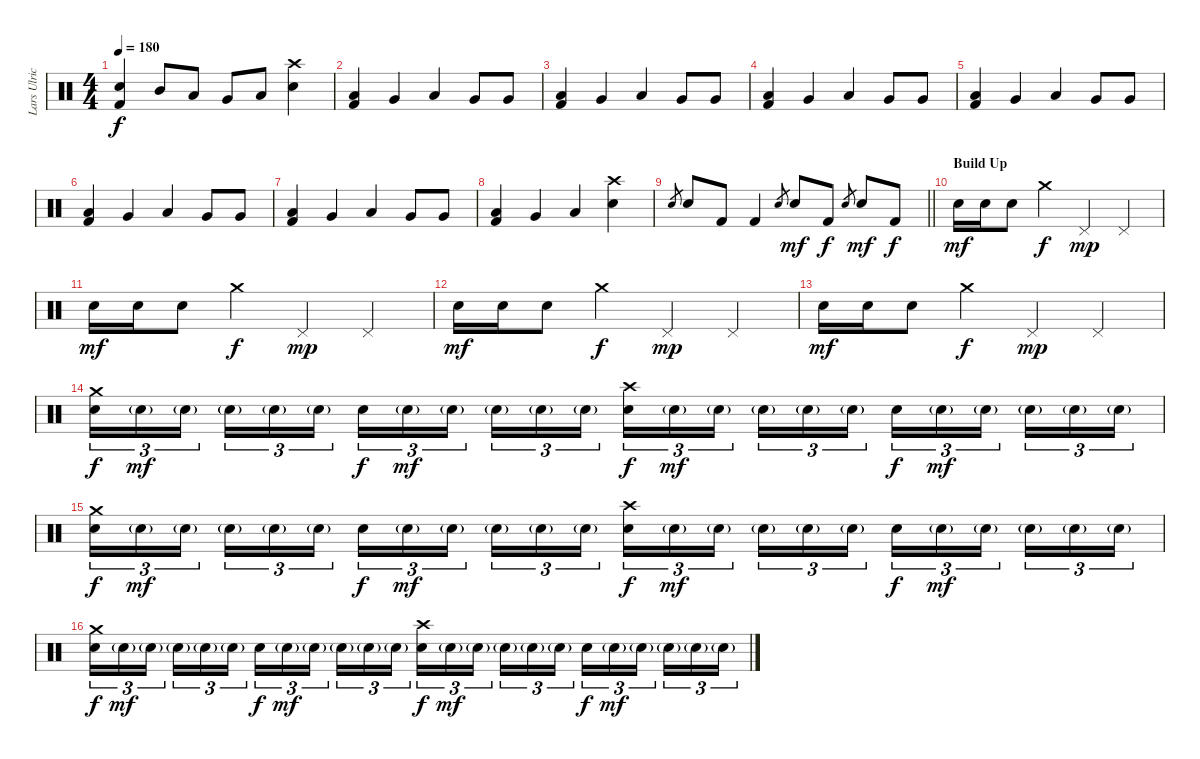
\track ("Lars Ulrich" "Lars Ulric") {instrument percussion}
\staff {score}
\articulation defaults
\ts (4 4)
\tempo 180
\clef neutral
\ks c
("Electric Snare (hit)" "Kick (hit) 2").4{dy f} "Mid Tom (hit)".8 "Low Tom (hit)".8 "Very Low Tom (hit)".8 "Low Floor Tom (hit)".8 ("Crash high (hit)" "Electric Snare (hit)").4 |
("Low Tom (hit)" "Kick (hit) 2").4 "Very Low Tom (hit)".4 "Low Tom (hit)".4 "Very Low Tom (hit)".8 "Very Low Tom (hit)".8 |
("Low Tom (hit)" "Kick (hit) 2").4 "Very Low Tom (hit)".4 "Low Tom (hit)".4 "Very Low Tom (hit)".8 "Very Low Tom (hit)".8 |
("Low Tom (hit)" "Kick (hit) 2").4 "Very Low Tom (hit)".4 "Low Tom (hit)".4 "Very Low Tom (hit)".8 "Very Low Tom (hit)".8 |
("Low Tom (hit)" "Kick (hit) 2").4 "Very Low Tom (hit)".4 "Low Tom (hit)".4 "Very Low Tom (hit)".8 "Very Low Tom (hit)".8 |
("Low Tom (hit)" "Kick (hit) 2").4 "Very Low Tom (hit)".4 "Low Tom (hit)".4 "Very Low Tom (hit)".8 "Very Low Tom (hit)".8 |
("Low Tom (hit)" "Kick (hit) 2").4 "Very Low Tom (hit)".4 "Low Tom (hit)".4 "Very Low Tom (hit)".8 "Very Low Tom (hit)".8 |
("Low Tom (hit)" "Kick (hit) 2").4 "Very Low Tom (hit)".4 "Low Tom (hit)".4 ("Crash high (hit)" "Electric Snare (hit)").4 |
\barLineRight lightlight "Electric Snare (hit)".8{gr} "Electric Snare (hit)".8 "Kick (hit) 2".8 "Kick (hit) 2".4 "Electric Snare (hit)".8{gr} "Electric Snare (hit)".8{dy mf} "Kick (hit) 2".8{dy f} "Electric Snare (hit)".8{gr} "Electric Snare (hit)".8{dy mf} "Kick (hit) 2".8{dy f}
|
\section ("" "Build Up")
"Electric Snare (hit)".16{dy mf} "Electric Snare (hit)".16 "Electric Snare (hit)".8 "Crash medium (hit)".4{dy f} "Pedal Hi-Hat (hit)".4{dy mp} "Pedal Hi-Hat (hit)".4 |
"Electric Snare (hit)".16{dy mf} "Electric Snare (hit)".16 "Electric Snare (hit)".8 "Crash medium (hit)".4{dy f} "Pedal Hi-Hat (hit)".4{dy mp} "Pedal Hi-Hat (hit)".4 |
"Electric Snare (hit)".16{dy mf} "Electric Snare (hit)".16 "Electric Snare (hit)".8 "Crash medium (hit)".4{dy f} "Pedal Hi-Hat (hit)".4{dy mp} "Pedal Hi-Hat (hit)".4 |
"Electric Snare (hit)".16{dy mf} "Electric Snare (hit)".16 "Electric Snare (hit)".8 "Crash medium (hit)".4{dy f} "Pedal Hi-Hat (hit)".4{dy mp} "Pedal Hi-Hat (hit)".4 |
("Crash medium (hit)" "Electric Snare (hit)").16{tu (3 2) dy f} "Electric Snare (hit)"{g}.16{tu (3 2) dy mf} "Electric Snare (hit)"{g}.16{tu (3 2)} "Electric Snare (hit)"{g}.16{tu (3 2)} "Electric Snare (hit)"{g}.16{tu (3 2)} "Electric Snare (hit)"{g}.16{tu (3 2)} "Electric Snare (hit)".16{tu (3 2) dy f} "Electric Snare (hit)"{g}.16{tu (3 2) dy mf} "Electric Snare (hit)"{g}.16{tu (3 2)} "Electric Snare (hit)"{g}.16{tu (3 2)} "Electric Snare (hit)"{g}.16{tu (3 2)} "Electric Snare (hit)"{g}.16{tu (3 2)} ("Crash high (hit)" "Electric Snare (hit)").16{tu (3 2) dy f} "Electric Snare (hit)"{g}.16{tu (3 2) dy mf} "Electric Snare (hit)"{g}.16{tu (3 2)} "Electric Snare (hit)"{g}.16{tu (3 2)} "Electric Snare (hit)"{g}.16{tu (3 2)} "Electric Snare (hit)"{g}.16{tu (3 2)} "Electric Snare (hit)".16{tu (3 2) dy f} "Electric Snare (hit)"{g}.16{tu (3 2) dy mf} "Electric Snare (hit)"{g}.16{tu (3 2)} "Electric Snare (hit)"{g}.16{tu (3 2)} "Electric Snare (hit)"{g}.16{tu (3 2)} "Electric Snare (hit)"{g}.16{tu (3 2)} |
("Crash medium (hit)" "Electric Snare (hit)").16{tu (3 2) dy f} "Electric Snare (hit)"{g}.16{tu (3 2) dy mf} "Electric Snare (hit)"{g}.16{tu (3 2)} "Electric Snare (hit)"{g}.16{tu (3 2)} "Electric Snare (hit)"{g}.16{tu (3 2)} "Electric Snare (hit)"{g}.16{tu (3 2)} "Electric Snare (hit)".16{tu (3 2) dy f} "Electric Snare (hit)"{g}.16{tu (3 2) dy mf} "Electric Snare (hit)"{g}.16{tu (3 2)} "Electric Snare (hit)"{g}.16{tu (3 2)} "Electric Snare (hit)"{g}.16{tu (3 2)} "Electric Snare (hit)"{g}.16{tu (3 2)} ("Crash high (hit)" "Electric Snare (hit)").16{tu (3 2) dy f} "Electric Snare (hit)"{g}.16{tu (3 2) dy mf} "Electric Snare (hit)"{g}.16{tu (3 2)} "Electric Snare (hit)"{g}.16{tu (3 2)} "Electric Snare (hit)"{g}.16{tu (3 2)} "Electric Snare (hit)"{g}.16{tu (3 2)} "Electric Snare (hit)".16{tu (3 2) dy f} "Electric Snare (hit)"{g}.16{tu (3 2) dy mf} "Electric Snare (hit)"{g}.16{tu (3 2)} "Electric Snare (hit)"{g}.16{tu (3 2)} "Electric Snare (hit)"{g}.16{tu (3 2)} "Electric Snare (hit)"{g}.16{tu (3 2)} |
("Crash medium (hit)" "Electric Snare (hit)").16{tu (3 2) dy f} "Electric Snare (hit)"{g}.16{tu (3 2) dy mf} "Electric Snare (hit)"{g}.16{tu (3 2)} "Electric Snare (hit)"{g}.16{tu (3 2)} "Electric Snare (hit)"{g}.16{tu (3 2)} "Electric Snare (hit)"{g}.16{tu (3 2)} "Electric Snare (hit)".16{tu (3 2) dy f} "Electric Snare (hit)"{g}.16{tu (3 2) dy mf} "Electric Snare (hit)"{g}.16{tu (3 2)} "Electric Snare (hit)"{g}.16{tu (3 2)} "Electric Snare (hit)"{g}.16{tu (3 2)} "Electric Snare (hit)"{g}.16{tu (3 2)} ("Crash high (hit)" "Electric Snare (hit)").16{tu (3 2) dy f} "Electric Snare (hit)"{g}.16{tu (3 2) dy mf} "Electric Snare (hit)"{g}.16{tu (3 2)} "Electric Snare (hit)"{g}.16{tu (3 2)} "Electric Snare (hit)"{g}.16{tu (3 2)} "Electric Snare (hit)"{g}.16{tu (3 2)} "Electric Snare (hit)".16{tu (3 2) dy f} "Electric Snare (hit)"{g}.16{tu (3 2) dy mf} "Electric Snare (hit)"{g}.16{tu (3 2)} "Electric Snare (hit)"{g}.16{tu (3 2)} "Electric Snare (hit)"{g}.16{tu (3 2)} "Electric Snare (hit)"{g}.16{tu (3 2)}
